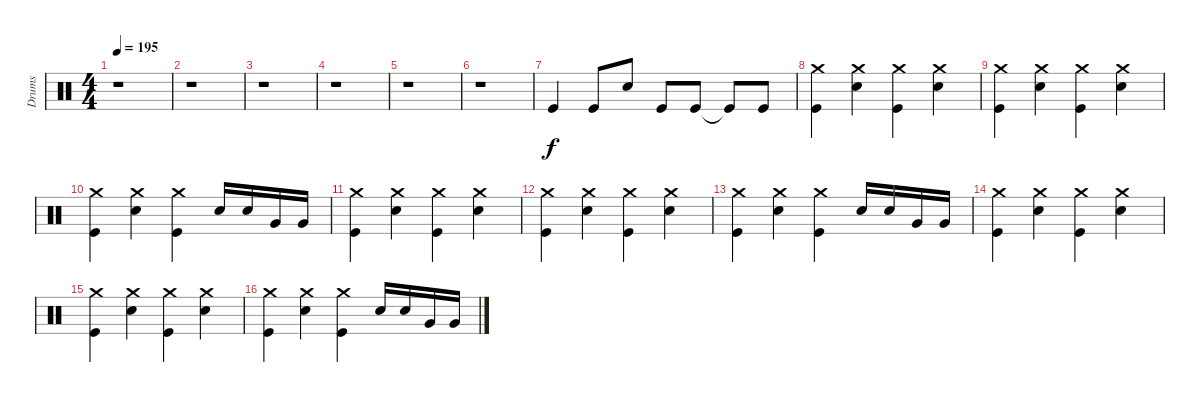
\track ("Drums" "Drums") {instrument percussion}
\staff {score}
\articulation defaults
\ts (4 4)
\tempo 195
\clef neutral
\ks c
r.1{dy f} |
r.1 |
r.1 |
r.1 |
r.1 |
r.1 |
"Kick (hit)".4 "Kick (hit)".8 "Electric Snare (hit)".8 "Kick (hit)".8 "Kick (hit)".8 "Kick (hit)"{t}.8 "Kick (hit)".8 |
("Crash medium (hit)" "Kick (hit)").4 ("Crash medium (hit)" "Electric Snare (hit)").4 ("Crash medium (hit)" "Kick (hit)").4 ("Crash medium (hit)" "Electric Snare (hit)").4 |
("Crash medium (hit)" "Kick (hit)").4 ("Crash medium (hit)" "Electric Snare (hit)").4 ("Crash medium (hit)" "Kick (hit)").4 ("Crash medium (hit)" "Electric Snare (hit)").4 |
("Crash medium (hit)" "Kick (hit)").4 ("Crash medium (hit)" "Electric Snare (hit)").4 ("Crash medium (hit)" "Kick (hit)").4 "Electric Snare (hit)".16 "Electric Snare (hit)".16 "Very Low Tom (hit)".16 "Very Low Tom (hit)".16 |
("Crash medium (hit)" "Kick (hit)").4 ("Crash medium (hit)" "Electric Snare (hit)").4 ("Crash medium (hit)" "Kick (hit)").4 ("Crash medium (hit)" "Electric Snare (hit)").4 |
("Crash medium (hit)" "Kick (hit)").4 ("Crash medium (hit)" "Electric Snare (hit)").4 ("Crash medium (hit)" "Kick (hit)").4 ("Crash medium (hit)" "Electric Snare (hit)").4 |
("Crash medium (hit)" "Kick (hit)").4 ("Crash medium (hit)" "Electric Snare (hit)").4 ("Crash medium (hit)" "Kick (hit)").4 "Electric Snare (hit)".16 "Electric Snare (hit)".16 "Very Low Tom (hit)".16 "Very Low Tom (hit)".16 |
("Crash medium (hit)" "Kick (hit)").4 ("Crash medium (hit)" "Electric Snare (hit)").4 ("Crash medium (hit)" "Kick (hit)").4 ("Crash medium (hit)" "Electric Snare (hit)").4 |
("Crash medium (hit)" "Kick (hit)").4 ("Crash medium (hit)" "Electric Snare (hit)").4 ("Crash medium (hit)" "Kick (hit)").4 ("Crash medium (hit)" "Electric Snare (hit)").4 |
("Crash medium (hit)" "Kick (hit)").4 ("Crash medium (hit)" "Electric Snare (hit)").4 ("Crash medium (hit)" "Kick (hit)").4 "Electric Snare (hit)".16 "Electric Snare (hit)".16 "Very Low Tom (hit)".16 "Very Low Tom (hit)".16
